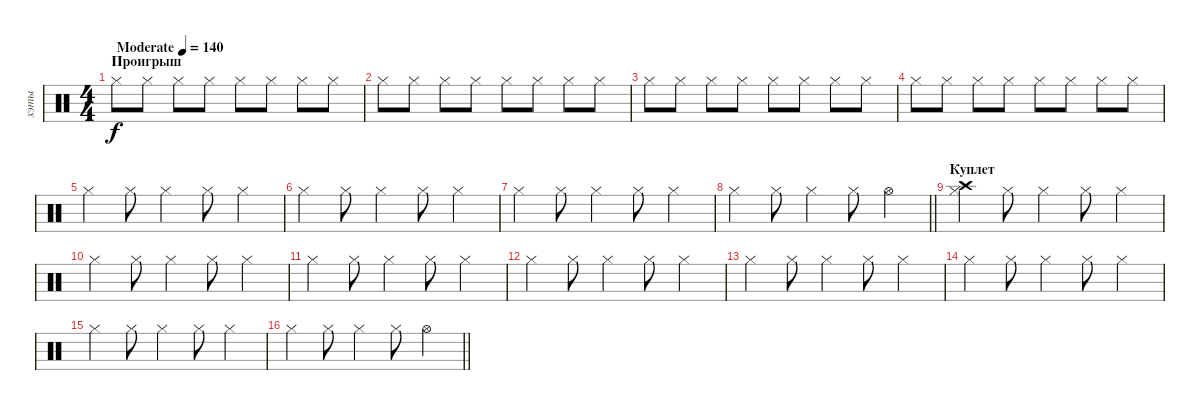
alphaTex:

\track ("хэты" "хэты") {instrument percussion}
\staff {score}
\articulation defaults
\ts (4 4)
\section ("" "Проигрыш")
\tempo (140 "Moderate")
\clef neutral
\ks c "Hi-Hat (closed)".8{dy f} "Hi-Hat (closed)".8 "Hi-Hat (closed)".8 "Hi-Hat (closed)".8 "Hi-Hat (closed)".8 "Hi-Hat (closed)".8 "Hi-Hat (closed)".8 "Hi-Hat (closed)".8
|
"Hi-Hat (closed)".8 "Hi-Hat (closed)".8 "Hi-Hat (closed)".8 "Hi-Hat (closed)".8 "Hi-Hat (closed)".8 "Hi-Hat (closed)".8 "Hi-Hat (closed)".8 "Hi-Hat (closed)".8 |
"Hi-Hat (closed)".8 "Hi-Hat (closed)".8 "Hi-Hat (closed)".8 "Hi-Hat (closed)".8 "Hi-Hat (closed)".8 "Hi-Hat (closed)".8 "Hi-Hat (closed)".8 "Hi-Hat (closed)".8 |
"Hi-Hat (closed)".8 "Hi-Hat (closed)".8 "Hi-Hat (closed)".8 "Hi-Hat (closed)".8 "Hi-Hat (closed)".8 "Hi-Hat (closed)".8 "Hi-Hat (closed)".8 "Hi-Hat (closed)".8 |
"Hi-Hat (closed)".4 "Hi-Hat (closed)".8 "Hi-Hat (closed)".4 "Hi-Hat (closed)".8 "Hi-Hat (closed)".4 |
"Hi-Hat (closed)".4 "Hi-Hat (closed)".8 "Hi-Hat (closed)".4 "Hi-Hat (closed)".8 "Hi-Hat (closed)".4 |
"Hi-Hat (closed)".4 "Hi-Hat (closed)".8 "Hi-Hat (closed)".4 "Hi-Hat (closed)".8 "Hi-Hat (closed)".4 |
\barLineRight lightlight "Hi-Hat (closed)".4 "Hi-Hat (closed)".8 "Hi-Hat (closed)".4 "Hi-Hat (closed)".8 "Hi-Hat (open)".4
|
\section ("" "Куплет")
("Hi-Hat (closed)" "Crash high (hit)").4 "Hi-Hat (closed)".8 "Hi-Hat (closed)".4 "Hi-Hat (closed)".8 "Hi-Hat (closed)".4 |
"Hi-Hat (closed)".4 "Hi-Hat (closed)".8 "Hi-Hat (closed)".4 "Hi-Hat (closed)".8 "Hi-Hat (closed)".4 |
"Hi-Hat (closed)".4 "Hi-Hat (closed)".8 "Hi-Hat (closed)".4 "Hi-Hat (closed)".8 "Hi-Hat (closed)".4 |
"Hi-Hat (closed)".4 "Hi-Hat (closed)".8 "Hi-Hat (closed)".4 "Hi-Hat (closed)".8 "Hi-Hat (closed)".4 |
"Hi-Hat (closed)".4 "Hi-Hat (closed)".8 "Hi-Hat (closed)".4 "Hi-Hat (closed)".8 "Hi-Hat (closed)".4 |
"Hi-Hat (closed)".4 "Hi-Hat (closed)".8 "Hi-Hat (closed)".4 "Hi-Hat (closed)".8 "Hi-Hat (closed)".4 |
"Hi-Hat (closed)".4 "Hi-Hat (closed)".8 "Hi-Hat (closed)".4 "Hi-Hat (closed)".8 "Hi-Hat (closed)".4 |
\barLineRight lightlight "Hi-Hat (closed)".4 "Hi-Hat (closed)".8 "Hi-Hat (closed)".4 "Hi-Hat (closed)".8 "Hi-Hat (open)".4
